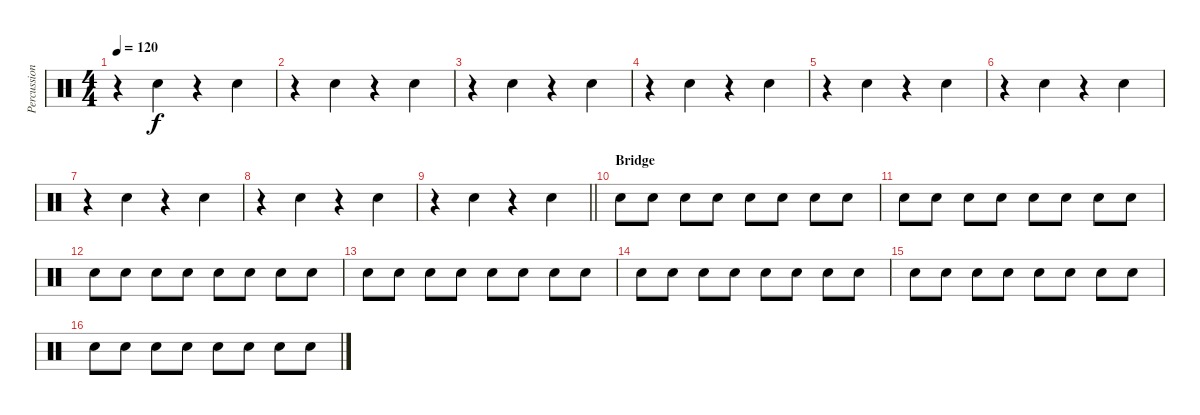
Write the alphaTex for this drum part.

\track ("Percussion" "Percussion") {instrument percussion}
\staff {score}
\articulation defaults
\ts (4 4)
\tempo 120
\clef neutral
\ks c
r.4{dy f} "Snare (hit) 2".4 r.4 "Snare (hit) 2".4 |
r.4 "Snare (hit) 2".4 r.4 "Snare (hit) 2".4 |
r.4 "Snare (hit) 2".4 r.4 "Snare (hit) 2".4 |
r.4 "Snare (hit) 2".4 r.4 "Snare (hit) 2".4 |
r.4 "Snare (hit) 2".4 r.4 "Snare (hit) 2".4 |
r.4 "Snare (hit) 2".4 r.4 "Snare (hit) 2".4 |
r.4 "Snare (hit) 2".4 r.4 "Snare (hit) 2".4 |
r.4 "Snare (hit) 2".4 r.4 "Snare (hit) 2".4 |
\barLineRight lightlight
r.4 "Snare (hit) 2".4 r.4 "Snare (hit) 2".4 |
\section ("" "Bridge")
"Snare (hit) 2".8{volume 6} "Snare (hit) 2".8 "Snare (hit) 2".8 "Snare (hit) 2".8 "Snare (hit) 2".8 "Snare (hit) 2".8 "Snare (hit) 2".8 "Snare (hit) 2".8 |
"Snare (hit) 2".8 "Snare (hit) 2".8 "Snare (hit) 2".8 "Snare (hit) 2".8 "Snare (hit) 2".8 "Snare (hit) 2".8 "Snare (hit) 2".8 "Snare (hit) 2".8 |
"Snare (hit) 2".8 "Snare (hit) 2".8 "Snare (hit) 2".8 "Snare (hit) 2".8 "Snare (hit) 2".8 "Snare (hit) 2".8 "Snare (hit) 2".8 "Snare (hit) 2".8 |
"Snare (hit) 2".8 "Snare (hit) 2".8 "Snare (hit) 2".8 "Snare (hit) 2".8 "Snare (hit) 2".8 "Snare (hit) 2".8 "Snare (hit) 2".8 "Snare (hit) 2".8 |
"Snare (hit) 2".8 "Snare (hit) 2".8 "Snare (hit) 2".8 "Snare (hit) 2".8 "Snare (hit) 2".8 "Snare (hit) 2".8 "Snare (hit) 2".8 "Snare (hit) 2".8 |
"Snare (hit) 2".8 "Snare (hit) 2".8 "Snare (hit) 2".8 "Snare (hit) 2".8 "Snare (hit) 2".8 "Snare (hit) 2".8 "Snare (hit) 2".8 "Snare (hit) 2".8 |
"Snare (hit) 2".8 "Snare (hit) 2".8 "Snare (hit) 2".8 "Snare (hit) 2".8 "Snare (hit) 2".8 "Snare (hit) 2".8 "Snare (hit) 2".8 "Snare (hit) 2".8
